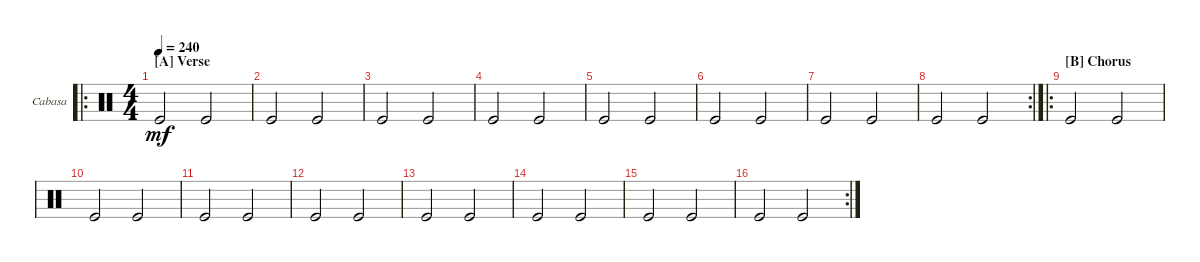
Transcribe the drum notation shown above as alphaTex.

\bracketExtendMode groupsimilarinstruments
\firstSystemTrackNameOrientation horizontal
\otherSystemsTrackNameOrientation horizontal
\track ("Cabasa" "Cabasa") {instrument percussion}
\staff {score}
\articulation defaults
\ro
\ts (4 4)
\section ("A" "Verse")
\tempo 240
\clef neutral
\scale
0.365591
\ks c "Kick (hit)".2{dy mf} "Kick (hit)".2
|
\scale
0.301075 "Kick (hit)".2 "Kick (hit)".2 |
\scale
0.333333 "Kick (hit)".2 "Kick (hit)".2 |
\scale
0.333333 "Kick (hit)".2 "Kick (hit)".2 |
\scale
0.333333 "Kick (hit)".2 "Kick (hit)".2 |
\scale
0.321839 "Kick (hit)".2 "Kick (hit)".2 |
\scale
0.321839 "Kick (hit)".2 "Kick (hit)".2 |
\rc 2
\scale
0.356322 "Kick (hit)".2 "Kick (hit)".2 |
\ro
\section ("B" "Chorus")
\scale
0.377778 "Kick (hit)".2 "Kick (hit)".2 |
\scale
0.311111 "Kick (hit)".2 "Kick (hit)".2 |
\scale
0.311111 "Kick (hit)".2 "Kick (hit)".2 |
\scale
0.333333 "Kick (hit)".2 "Kick (hit)".2 |
\scale
0.333333 "Kick (hit)".2 "Kick (hit)".2 |
\scale
0.333333 "Kick (hit)".2 "Kick (hit)".2 |
\scale
0.301075 "Kick (hit)".2 "Kick (hit)".2 |
\rc 2
\scale
0.333333 "Kick (hit)".2 "Kick (hit)".2
